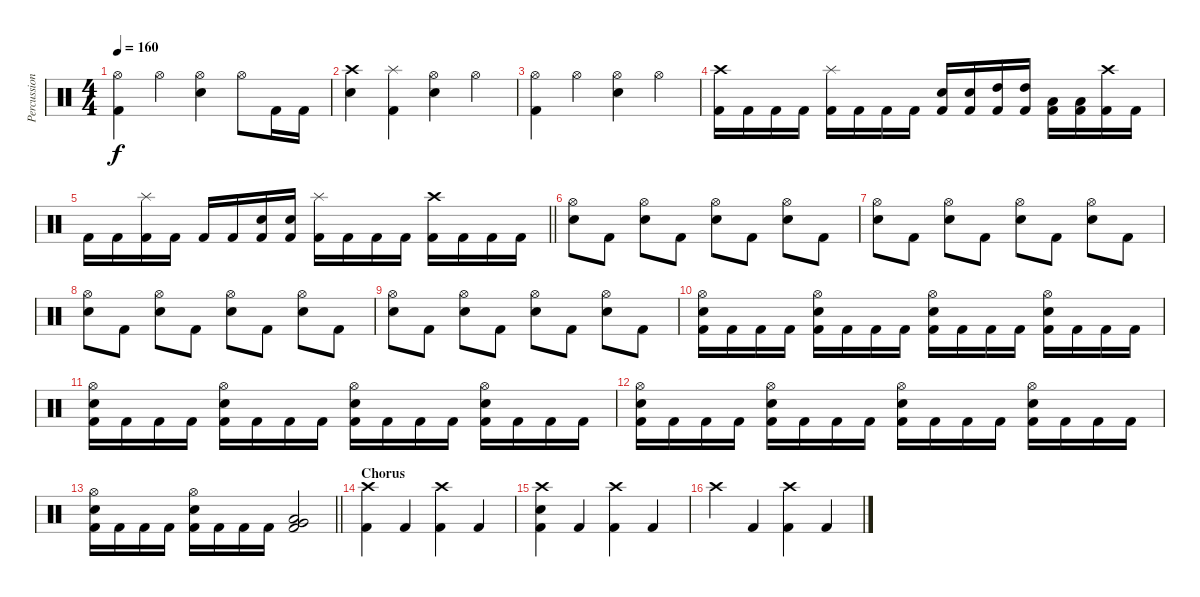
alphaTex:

\track ("Percussion" "Percussion") {instrument percussion}
\staff {score}
\articulation defaults
\ts (4 4)
\tempo 160
\clef neutral
\ks c
("Hi-Hat (open)" "Kick (hit) 2").4{dy f} "Hi-Hat (open)".4 ("Hi-Hat (open)" "Snare (hit) 2").4 "Hi-Hat (open)".8 "Kick (hit) 2".16 "Kick (hit) 2".16 |
("Crash high (hit)" "Snare (hit) 2").4 ("Splash (hit)" "Kick (hit) 2").4 ("Hi-Hat (open)" "Snare (hit) 2").4 "Hi-Hat (open)".4 |
("Hi-Hat (open)" "Kick (hit) 2").4 "Hi-Hat (open)".4 ("Hi-Hat (open)" "Snare (hit) 2").4 "Hi-Hat (open)".4 |
("Crash high (hit)" "Kick (hit) 2").16 "Kick (hit) 2".16 "Kick (hit) 2".16 "Kick (hit) 2".16 ("Splash (hit)" "Kick (hit) 2").16 "Kick (hit) 2".16 "Kick (hit) 2".16 "Kick (hit) 2".16 ("Snare (hit) 2" "Kick (hit) 2").16 ("Snare (hit) 2" "Kick (hit) 2").16 ("High Tom (hit)" "Kick (hit) 2").16 ("High Tom (hit)" "Kick (hit) 2").16 ("Low Tom (hit)" "Kick (hit) 2").16 ("Low Tom (hit)" "Kick (hit) 2").16 ("Crash high (hit)" "Kick (hit) 2").16 "Kick (hit) 2".16 |
\barLineRight lightlight "Kick (hit) 2".16 "Kick (hit) 2".16
("Splash (hit)" "Kick (hit) 2").16 "Kick (hit) 2".16 "Kick (hit) 2".16 "Kick (hit) 2".16 ("Snare (hit) 2" "Kick (hit) 2").16 ("Snare (hit) 2" "Kick (hit) 2").16 ("Splash (hit)" "Kick (hit) 2").16 "Kick (hit) 2".16 "Kick (hit) 2".16 "Kick (hit) 2".16 ("Crash high (hit)" "Kick (hit) 2").16 "Kick (hit) 2".16 "Kick (hit) 2".16 "Kick (hit) 2".16 |
("Hi-Hat (open)" "Snare (hit) 2").8 "Kick (hit) 2".8 ("Hi-Hat (open)" "Snare (hit) 2").8 "Kick (hit) 2".8 ("Hi-Hat (open)" "Snare (hit) 2").8 "Kick (hit) 2".8 ("Hi-Hat (open)" "Snare (hit) 2").8 "Kick (hit) 2".8 |
("Hi-Hat (open)" "Snare (hit) 2").8 "Kick (hit) 2".8 ("Hi-Hat (open)" "Snare (hit) 2").8 "Kick (hit) 2".8 ("Hi-Hat (open)" "Snare (hit) 2").8 "Kick (hit) 2".8 ("Hi-Hat (open)" "Snare (hit) 2").8 "Kick (hit) 2".8 |
("Hi-Hat (open)" "Snare (hit) 2").8 "Kick (hit) 2".8 ("Hi-Hat (open)" "Snare (hit) 2").8 "Kick (hit) 2".8 ("Hi-Hat (open)" "Snare (hit) 2").8 "Kick (hit) 2".8 ("Hi-Hat (open)" "Snare (hit) 2").8 "Kick (hit) 2".8 |
("Hi-Hat (open)" "Snare (hit) 2").8 "Kick (hit) 2".8 ("Hi-Hat (open)" "Snare (hit) 2").8 "Kick (hit) 2".8 ("Hi-Hat (open)" "Snare (hit) 2").8 "Kick (hit) 2".8 ("Hi-Hat (open)" "Snare (hit) 2").8 "Kick (hit) 2".8 |
("Hi-Hat (open)" "Snare (hit) 2" "Kick (hit) 2").16 "Kick (hit) 2".16 "Kick (hit) 2".16 "Kick (hit) 2".16 ("Hi-Hat (open)" "Snare (hit) 2" "Kick (hit) 2").16 "Kick (hit) 2".16 "Kick (hit) 2".16 "Kick (hit) 2".16 ("Hi-Hat (open)" "Snare (hit) 2" "Kick (hit) 2").16 "Kick (hit) 2".16 "Kick (hit) 2".16 "Kick (hit) 2".16 ("Hi-Hat (open)" "Snare (hit) 2" "Kick (hit) 2").16 "Kick (hit) 2".16 "Kick (hit) 2".16 "Kick (hit) 2".16 |
("Hi-Hat (open)" "Snare (hit) 2" "Kick (hit) 2").16 "Kick (hit) 2".16 "Kick (hit) 2".16 "Kick (hit) 2".16 ("Hi-Hat (open)" "Snare (hit) 2" "Kick (hit) 2").16 "Kick (hit) 2".16 "Kick (hit) 2".16 "Kick (hit) 2".16 ("Hi-Hat (open)" "Snare (hit) 2" "Kick (hit) 2").16 "Kick (hit) 2".16 "Kick (hit) 2".16 "Kick (hit) 2".16 ("Hi-Hat (open)" "Snare (hit) 2" "Kick (hit) 2").16 "Kick (hit) 2".16 "Kick (hit) 2".16 "Kick (hit) 2".16 |
("Hi-Hat (open)" "Snare (hit) 2" "Kick (hit) 2").16 "Kick (hit) 2".16 "Kick (hit) 2".16 "Kick (hit) 2".16 ("Hi-Hat (open)" "Snare (hit) 2" "Kick (hit) 2").16 "Kick (hit) 2".16 "Kick (hit) 2".16 "Kick (hit) 2".16 ("Hi-Hat (open)" "Snare (hit) 2" "Kick (hit) 2").16 "Kick (hit) 2".16 "Kick (hit) 2".16 "Kick (hit) 2".16 ("Hi-Hat (open)" "Snare (hit) 2" "Kick (hit) 2").16 "Kick (hit) 2".16 "Kick (hit) 2".16 "Kick (hit) 2".16 |
\barLineRight lightlight
("Hi-Hat (open)" "Snare (hit) 2" "Kick (hit) 2").16 "Kick (hit) 2".16 "Kick (hit) 2".16 "Kick (hit) 2".16 ("Hi-Hat (open)" "Snare (hit) 2" "Kick (hit) 2").16 "Kick (hit) 2".16 "Kick (hit) 2".16 "Kick (hit) 2".16 ("Very Low Tom (hit)" "Low Floor Tom (hit)" "Kick (hit) 2").2 |
\section ("" "Chorus")
("Crash high (hit)" "Kick (hit) 2").4 "Kick (hit) 2".4 ("Crash high (hit)" "Kick (hit) 2").4 "Kick (hit) 2".4 |
("Crash high (hit)" "Snare (hit) 2" "Kick (hit) 2").4 "Kick (hit) 2".4 ("Crash high (hit)" "Kick (hit) 2").4 "Kick (hit) 2".4 |
"Crash high (hit)".4 "Kick (hit) 2".4 ("Crash high (hit)" "Kick (hit) 2").4 "Kick (hit) 2".4
